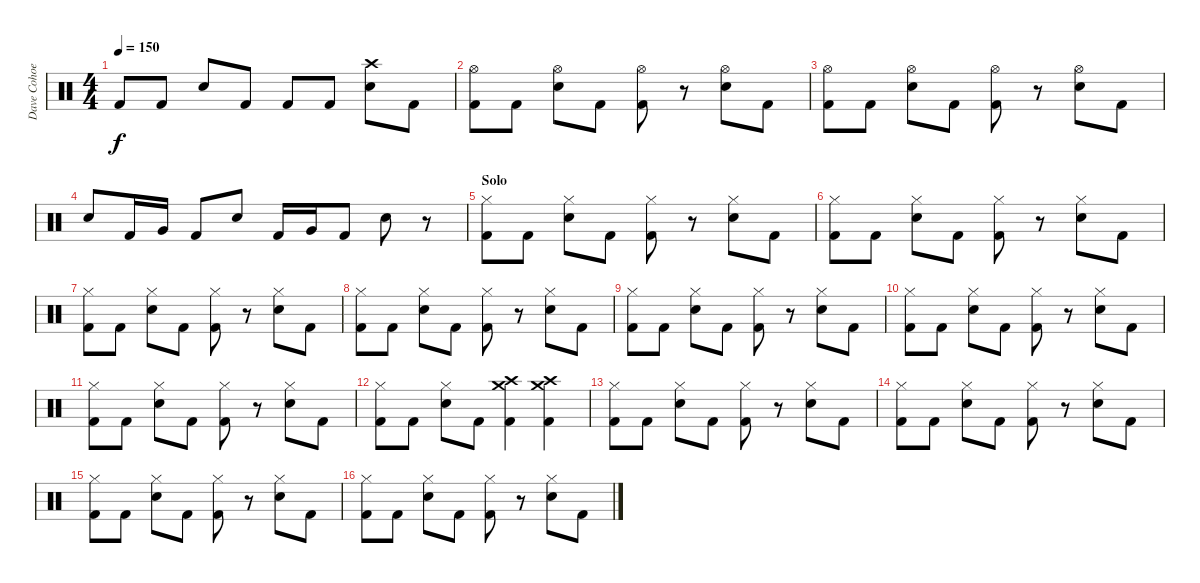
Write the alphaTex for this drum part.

\track ("Dave Cohoe" "Dave Cohoe") {instrument percussion}
\staff {score}
\articulation defaults
\ts (4 4)
\tempo 150
\clef neutral
\ks c "Kick (hit) 2".8{dy f} "Kick (hit) 2".8 "Snare (hit) 2".8 "Kick (hit) 2".8 "Kick (hit) 2".8 "Kick (hit) 2".8
("Crash high (hit)" "Snare (hit) 2").8 "Kick (hit) 2".8 |
("Hi-Hat (open)" "Kick (hit) 2").8 "Kick (hit) 2".8 ("Hi-Hat (open)" "Snare (hit) 2").8 "Kick (hit) 2".8 ("Hi-Hat (open)" "Kick (hit) 2").8 r.8 ("Hi-Hat (open)" "Snare (hit) 2").8 "Kick (hit) 2".8 |
("Hi-Hat (open)" "Kick (hit) 2").8 "Kick (hit) 2".8 ("Hi-Hat (open)" "Snare (hit) 2").8 "Kick (hit) 2".8 ("Hi-Hat (open)" "Kick (hit) 2").8 r.8 ("Hi-Hat (open)" "Snare (hit) 2").8 "Kick (hit) 2".8 |
"Snare (hit) 2".8 "Kick (hit) 2".16 "Very Low Tom (hit)".16 "Kick (hit) 2".8 "Snare (hit) 2".8 "Kick (hit) 2".16 "Very Low Tom (hit)".16 "Kick (hit) 2".8 "Snare (hit) 2".8 r.8 |
\section ("" "Solo")
("Hi-Hat (closed)" "Kick (hit) 2").8 "Kick (hit) 2".8 ("Hi-Hat (closed)" "Snare (hit) 2").8 "Kick (hit) 2".8 ("Hi-Hat (closed)" "Kick (hit) 2").8 r.8 ("Hi-Hat (closed)" "Snare (hit) 2").8 "Kick (hit) 2".8 |
("Hi-Hat (closed)" "Kick (hit) 2").8 "Kick (hit) 2".8 ("Hi-Hat (closed)" "Snare (hit) 2").8 "Kick (hit) 2".8 ("Hi-Hat (closed)" "Kick (hit) 2").8 r.8 ("Hi-Hat (closed)" "Snare (hit) 2").8 "Kick (hit) 2".8 |
("Hi-Hat (closed)" "Kick (hit) 2").8 "Kick (hit) 2".8 ("Hi-Hat (closed)" "Snare (hit) 2").8 "Kick (hit) 2".8 ("Hi-Hat (closed)" "Kick (hit) 2").8 r.8 ("Hi-Hat (closed)" "Snare (hit) 2").8 "Kick (hit) 2".8 |
("Hi-Hat (closed)" "Kick (hit) 2").8 "Kick (hit) 2".8 ("Hi-Hat (closed)" "Snare (hit) 2").8 "Kick (hit) 2".8 ("Hi-Hat (closed)" "Kick (hit) 2").8 r.8 ("Hi-Hat (closed)" "Snare (hit) 2").8 "Kick (hit) 2".8 |
("Hi-Hat (closed)" "Kick (hit) 2").8 "Kick (hit) 2".8 ("Hi-Hat (closed)" "Snare (hit) 2").8 "Kick (hit) 2".8 ("Hi-Hat (closed)" "Kick (hit) 2").8 r.8 ("Hi-Hat (closed)" "Snare (hit) 2").8 "Kick (hit) 2".8 |
("Hi-Hat (closed)" "Kick (hit) 2").8 "Kick (hit) 2".8 ("Hi-Hat (closed)" "Snare (hit) 2").8 "Kick (hit) 2".8 ("Hi-Hat (closed)" "Kick (hit) 2").8 r.8 ("Hi-Hat (closed)" "Snare (hit) 2").8 "Kick (hit) 2".8 |
("Hi-Hat (closed)" "Kick (hit) 2").8 "Kick (hit) 2".8 ("Hi-Hat (closed)" "Snare (hit) 2").8 "Kick (hit) 2".8 ("Hi-Hat (closed)" "Kick (hit) 2").8 r.8 ("Hi-Hat (closed)" "Snare (hit) 2").8 "Kick (hit) 2".8 |
("Hi-Hat (closed)" "Kick (hit) 2").8 "Kick (hit) 2".8 ("Hi-Hat (closed)" "Snare (hit) 2").8 "Kick (hit) 2".8 ("Crash high (hit)" "Crash medium (hit)" "Kick (hit) 2").4 ("Crash high (hit)" "Crash medium (hit)" "Kick (hit) 2").4 |
("Hi-Hat (closed)" "Kick (hit) 2").8 "Kick (hit) 2".8 ("Hi-Hat (closed)" "Snare (hit) 2").8 "Kick (hit) 2".8 ("Hi-Hat (closed)" "Kick (hit) 2").8 r.8 ("Hi-Hat (closed)" "Snare (hit) 2").8 "Kick (hit) 2".8 |
("Hi-Hat (closed)" "Kick (hit) 2").8 "Kick (hit) 2".8 ("Hi-Hat (closed)" "Snare (hit) 2").8 "Kick (hit) 2".8 ("Hi-Hat (closed)" "Kick (hit) 2").8 r.8 ("Hi-Hat (closed)" "Snare (hit) 2").8 "Kick (hit) 2".8 |
("Hi-Hat (closed)" "Kick (hit) 2").8 "Kick (hit) 2".8 ("Hi-Hat (closed)" "Snare (hit) 2").8 "Kick (hit) 2".8 ("Hi-Hat (closed)" "Kick (hit) 2").8 r.8 ("Hi-Hat (closed)" "Snare (hit) 2").8 "Kick (hit) 2".8 |
("Hi-Hat (closed)" "Kick (hit) 2").8 "Kick (hit) 2".8 ("Hi-Hat (closed)" "Snare (hit) 2").8 "Kick (hit) 2".8 ("Hi-Hat (closed)" "Kick (hit) 2").8 r.8 ("Hi-Hat (closed)" "Snare (hit) 2").8 "Kick (hit) 2".8
